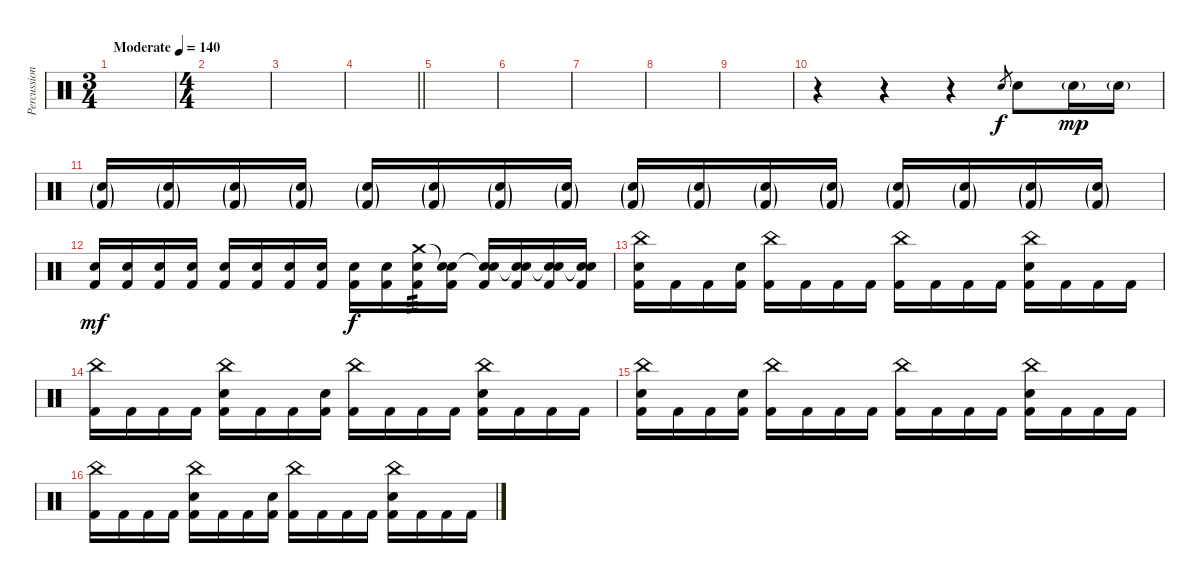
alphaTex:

\track ("Percussion" "Percussion") {instrument percussion}
\staff {score}
\articulation defaults
\ts (3 4)
\tempo (140 "Moderate")
\clef neutral
\ks c
|
\ts (4 4)
|
|
\barLineRight lightlight
|
\section ("" "")
|
|
|
|
|
r.4 r.4 r.4 "Snare (hit) 2".8{gr} "Snare (hit) 2".8 "Snare (hit) 2"{g}.16{dy mp} "Snare (hit) 2"{g}.16 |
("Snare (hit) 2"{g} "Kick (hit) 2"{g}).16 ("Snare (hit) 2"{g} "Kick (hit) 2"{g}).16 ("Snare (hit) 2"{g} "Kick (hit) 2"{g}).16 ("Snare (hit) 2"{g} "Kick (hit) 2"{g}).16 ("Snare (hit) 2"{g} "Kick (hit) 2"{g}).16 ("Snare (hit) 2"{g} "Kick (hit) 2"{g}).16 ("Snare (hit) 2"{g} "Kick (hit) 2"{g}).16 ("Snare (hit) 2"{g} "Kick (hit) 2"{g}).16 ("Snare (hit) 2"{g} "Kick (hit) 2"{g}).16 ("Snare (hit) 2"{g} "Kick (hit) 2"{g}).16 ("Snare (hit) 2"{g} "Kick (hit) 2"{g}).16 ("Snare (hit) 2"{g} "Kick (hit) 2"{g}).16 ("Snare (hit) 2"{g} "Kick (hit) 2"{g}).16 ("Snare (hit) 2"{g} "Kick (hit) 2"{g}).16 ("Snare (hit) 2"{g} "Kick (hit) 2"{g}).16 ("Snare (hit) 2"{g} "Kick (hit) 2"{g}).16 |
("Snare (hit) 2" "Kick (hit) 2").16{dy mf} ("Snare (hit) 2" "Kick (hit) 2").16 ("Snare (hit) 2" "Kick (hit) 2").16 ("Snare (hit) 2" "Kick (hit) 2").16 ("Snare (hit) 2" "Kick (hit) 2").16 ("Snare (hit) 2" "Kick (hit) 2").16 ("Snare (hit) 2" "Kick (hit) 2").16 ("Snare (hit) 2" "Kick (hit) 2").16 ("Snare (hit) 2" "Kick (hit) 2").16{dy f} ("Snare (hit) 2" "Kick (hit) 2").16 ("Crash medium (hit)" "Snare (hit) 2" "Kick (hit) 2").16{tp 3} ("Snare (hit)"{t} "Snare (hit) 2" "Kick (hit) 2").16 ("Snare (hit)"{t} "Snare (hit) 2" "Kick (hit) 2").16 ("Snare (hit)"{t} "Snare (hit) 2" "Kick (hit) 2").16 ("Snare (hit)"{t} "Snare (hit) 2" "Kick (hit) 2").16 ("Snare (hit)"{t} "Snare (hit) 2" "Kick (hit) 2").16 |
("China (hit)" "Snare (hit) 2" "Kick (hit) 2").16 "Kick (hit) 2".16 "Kick (hit) 2".16 ("Snare (hit) 2" "Kick (hit) 2").16 ("China (hit)" "Kick (hit) 2").16 "Kick (hit) 2".16 "Kick (hit) 2".16 "Kick (hit) 2".16 ("China (hit)" "Kick (hit) 2").16 "Kick (hit) 2".16 "Kick (hit) 2".16 "Kick (hit) 2".16 ("China (hit)" "Snare (hit) 2" "Kick (hit) 2").16 "Kick (hit) 2".16 "Kick (hit) 2".16 "Kick (hit) 2".16 |
("China (hit)" "Kick (hit) 2").16 "Kick (hit) 2".16 "Kick (hit) 2".16 "Kick (hit) 2".16 ("China (hit)" "Snare (hit) 2" "Kick (hit) 2").16 "Kick (hit) 2".16 "Kick (hit) 2".16 ("Snare (hit) 2" "Kick (hit) 2").16 ("China (hit)" "Kick (hit) 2").16 "Kick (hit) 2".16 "Kick (hit) 2".16 "Kick (hit) 2".16 ("China (hit)" "Snare (hit) 2" "Kick (hit) 2").16 "Kick (hit) 2".16 "Kick (hit) 2".16 "Kick (hit) 2".16 |
("China (hit)" "Snare (hit) 2" "Kick (hit) 2").16 "Kick (hit) 2".16 "Kick (hit) 2".16 ("Snare (hit) 2" "Kick (hit) 2").16 ("China (hit)" "Kick (hit) 2").16 "Kick (hit) 2".16 "Kick (hit) 2".16 "Kick (hit) 2".16 ("China (hit)" "Kick (hit) 2").16 "Kick (hit) 2".16 "Kick (hit) 2".16 "Kick (hit) 2".16 ("China (hit)" "Snare (hit) 2" "Kick (hit) 2").16 "Kick (hit) 2".16 "Kick (hit) 2".16 "Kick (hit) 2".16 |
("China (hit)" "Kick (hit) 2").16 "Kick (hit) 2".16 "Kick (hit) 2".16 "Kick (hit) 2".16 ("China (hit)" "Snare (hit) 2" "Kick (hit) 2").16 "Kick (hit) 2".16 "Kick (hit) 2".16 ("Snare (hit) 2" "Kick (hit) 2").16 ("China (hit)" "Kick (hit) 2").16 "Kick (hit) 2".16 "Kick (hit) 2".16 "Kick (hit) 2".16 ("China (hit)" "Snare (hit) 2" "Kick (hit) 2").16 "Kick (hit) 2".16 "Kick (hit) 2".16 "Kick (hit) 2".16
